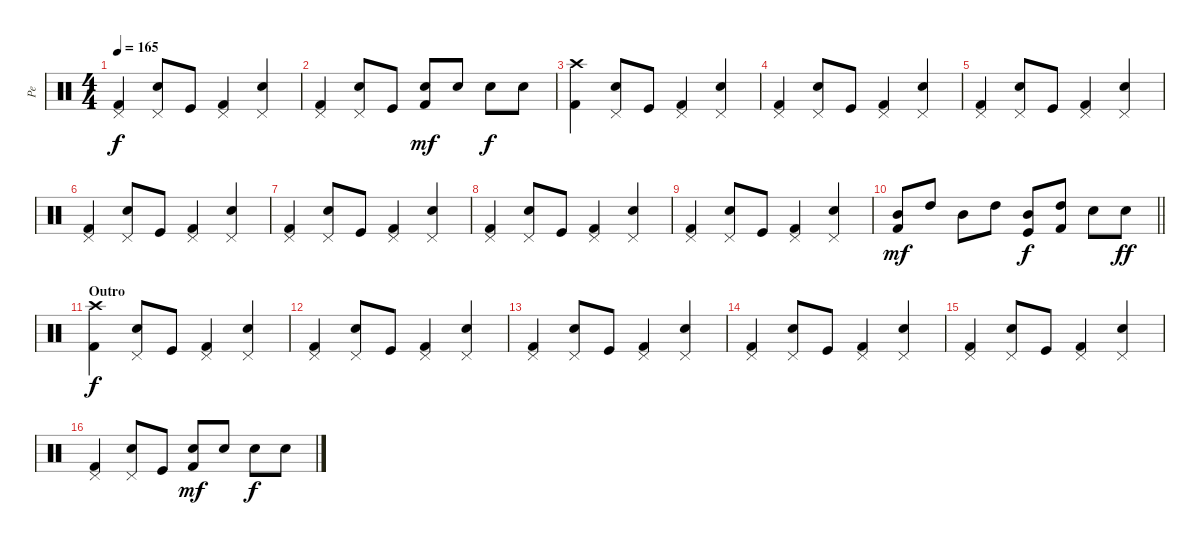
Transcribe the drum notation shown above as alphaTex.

\track ("Pe" "Pe") {instrument percussion}
\staff {score}
\articulation defaults
\ts (4 4)
\tempo 165
\clef neutral
\ks c
("Kick (hit) 2" "Pedal Hi-Hat (hit)").4{dy f} ("Electric Snare (hit)" "Pedal Hi-Hat (hit)").8 "Kick (hit)".8 ("Kick (hit) 2" "Pedal Hi-Hat (hit)").4 ("Electric Snare (hit)" "Pedal Hi-Hat (hit)").4 |
("Kick (hit) 2" "Pedal Hi-Hat (hit)").4 ("Electric Snare (hit)" "Pedal Hi-Hat (hit)").8 "Kick (hit)".8 ("Kick (hit) 2" "Electric Snare (hit)").8{dy mf} "Electric Snare (hit)".8 "Electric Snare (hit)".8{dy f} "Electric Snare (hit)".8 |
("Kick (hit) 2" "Crash high (hit)").4 ("Electric Snare (hit)" "Pedal Hi-Hat (hit)").8 "Kick (hit)".8 ("Kick (hit) 2" "Pedal Hi-Hat (hit)").4 ("Electric Snare (hit)" "Pedal Hi-Hat (hit)").4 |
("Kick (hit) 2" "Pedal Hi-Hat (hit)").4 ("Electric Snare (hit)" "Pedal Hi-Hat (hit)").8 "Kick (hit)".8 ("Kick (hit) 2" "Pedal Hi-Hat (hit)").4 ("Electric Snare (hit)" "Pedal Hi-Hat (hit)").4 |
("Kick (hit) 2" "Pedal Hi-Hat (hit)").4 ("Electric Snare (hit)" "Pedal Hi-Hat (hit)").8 "Kick (hit)".8 ("Kick (hit) 2" "Pedal Hi-Hat (hit)").4 ("Electric Snare (hit)" "Pedal Hi-Hat (hit)").4 |
("Kick (hit) 2" "Pedal Hi-Hat (hit)").4 ("Electric Snare (hit)" "Pedal Hi-Hat (hit)").8 "Kick (hit)".8 ("Kick (hit) 2" "Pedal Hi-Hat (hit)").4 ("Electric Snare (hit)" "Pedal Hi-Hat (hit)").4 |
("Kick (hit) 2" "Pedal Hi-Hat (hit)").4 ("Electric Snare (hit)" "Pedal Hi-Hat (hit)").8 "Kick (hit)".8 ("Kick (hit) 2" "Pedal Hi-Hat (hit)").4 ("Electric Snare (hit)" "Pedal Hi-Hat (hit)").4 |
("Kick (hit) 2" "Pedal Hi-Hat (hit)").4 ("Electric Snare (hit)" "Pedal Hi-Hat (hit)").8 "Kick (hit)".8 ("Kick (hit) 2" "Pedal Hi-Hat (hit)").4 ("Electric Snare (hit)" "Pedal Hi-Hat (hit)").4 |
("Kick (hit) 2" "Pedal Hi-Hat (hit)").4 ("Electric Snare (hit)" "Pedal Hi-Hat (hit)").8 "Kick (hit)".8 ("Kick (hit) 2" "Pedal Hi-Hat (hit)").4 ("Electric Snare (hit)" "Pedal Hi-Hat (hit)").4 |
\barLineRight lightlight
("Kick (hit) 2" "Mid Tom (hit)").8{dy mf} "High Tom (hit)".8 "Mid Tom (hit)".8 "High Tom (hit)".8 ("Kick (hit)" "Mid Tom (hit)").8{dy f} ("Kick (hit) 2" "High Tom (hit)").8 "Electric Snare (hit)".8 "Electric Snare (hit)".8{dy ff} |
\section ("" "Outro")
("Kick (hit) 2" "Crash high (hit)").4{dy f} ("Electric Snare (hit)" "Pedal Hi-Hat (hit)").8 "Kick (hit)".8 ("Kick (hit) 2" "Pedal Hi-Hat (hit)").4 ("Electric Snare (hit)" "Pedal Hi-Hat (hit)").4 |
("Kick (hit) 2" "Pedal Hi-Hat (hit)").4 ("Electric Snare (hit)" "Pedal Hi-Hat (hit)").8 "Kick (hit)".8 ("Kick (hit) 2" "Pedal Hi-Hat (hit)").4 ("Electric Snare (hit)" "Pedal Hi-Hat (hit)").4 |
("Kick (hit) 2" "Pedal Hi-Hat (hit)").4 ("Electric Snare (hit)" "Pedal Hi-Hat (hit)").8 "Kick (hit)".8 ("Kick (hit) 2" "Pedal Hi-Hat (hit)").4 ("Electric Snare (hit)" "Pedal Hi-Hat (hit)").4 |
("Kick (hit) 2" "Pedal Hi-Hat (hit)").4 ("Electric Snare (hit)" "Pedal Hi-Hat (hit)").8 "Kick (hit)".8 ("Kick (hit) 2" "Pedal Hi-Hat (hit)").4 ("Electric Snare (hit)" "Pedal Hi-Hat (hit)").4 |
("Kick (hit) 2" "Pedal Hi-Hat (hit)").4 ("Electric Snare (hit)" "Pedal Hi-Hat (hit)").8 "Kick (hit)".8 ("Kick (hit) 2" "Pedal Hi-Hat (hit)").4 ("Electric Snare (hit)" "Pedal Hi-Hat (hit)").4 |
("Kick (hit) 2" "Pedal Hi-Hat (hit)").4 ("Electric Snare (hit)" "Pedal Hi-Hat (hit)").8 "Kick (hit)".8 ("Kick (hit) 2" "Electric Snare (hit)").8{dy mf} "Electric Snare (hit)".8 "Electric Snare (hit)".8{dy f} "Electric Snare (hit)".8
